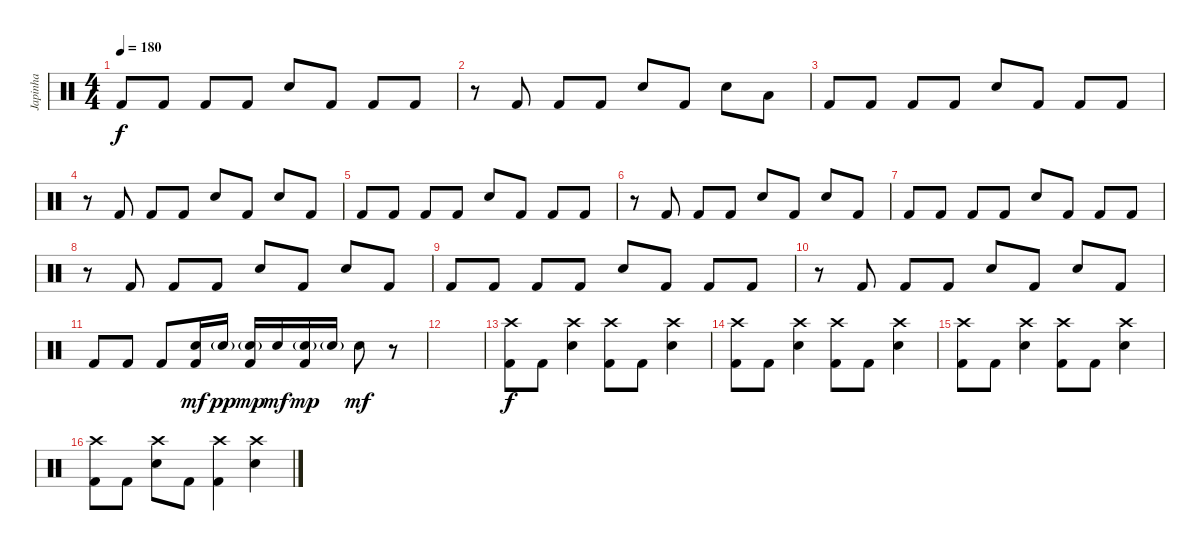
\track ("Japinha" "Japinha") {instrument percussion}
\staff {score}
\articulation defaults
\ts (4 4)
\tempo 180
\clef neutral
\ks c "Kick (hit) 2".8{dy f} "Kick (hit) 2".8 "Kick (hit) 2".8 "Kick (hit) 2".8 "Snare (hit) 2".8 "Kick (hit) 2".8 "Kick (hit) 2".8 "Kick (hit) 2".8
|
r.8 "Kick (hit) 2".8 "Kick (hit) 2".8 "Kick (hit) 2".8 "Snare (hit) 2".8 "Kick (hit) 2".8 "Snare (hit) 2".8 "Low Floor Tom (hit)".8 |
"Kick (hit) 2".8 "Kick (hit) 2".8 "Kick (hit) 2".8 "Kick (hit) 2".8 "Snare (hit) 2".8 "Kick (hit) 2".8 "Kick (hit) 2".8 "Kick (hit) 2".8 |
r.8 "Kick (hit) 2".8 "Kick (hit) 2".8 "Kick (hit) 2".8 "Snare (hit) 2".8 "Kick (hit) 2".8 "Snare (hit) 2".8 "Kick (hit) 2".8 |
"Kick (hit) 2".8 "Kick (hit) 2".8 "Kick (hit) 2".8 "Kick (hit) 2".8 "Snare (hit) 2".8 "Kick (hit) 2".8 "Kick (hit) 2".8 "Kick (hit) 2".8 |
r.8 "Kick (hit) 2".8 "Kick (hit) 2".8 "Kick (hit) 2".8 "Snare (hit) 2".8 "Kick (hit) 2".8 "Snare (hit) 2".8 "Kick (hit) 2".8 |
"Kick (hit) 2".8 "Kick (hit) 2".8 "Kick (hit) 2".8 "Kick (hit) 2".8 "Snare (hit) 2".8 "Kick (hit) 2".8 "Kick (hit) 2".8 "Kick (hit) 2".8 |
r.8 "Kick (hit) 2".8 "Kick (hit) 2".8 "Kick (hit) 2".8 "Snare (hit) 2".8 "Kick (hit) 2".8 "Snare (hit) 2".8 "Kick (hit) 2".8 |
"Kick (hit) 2".8 "Kick (hit) 2".8 "Kick (hit) 2".8 "Kick (hit) 2".8 "Snare (hit) 2".8 "Kick (hit) 2".8 "Kick (hit) 2".8 "Kick (hit) 2".8 |
r.8 "Kick (hit) 2".8 "Kick (hit) 2".8 "Kick (hit) 2".8 "Snare (hit) 2".8 "Kick (hit) 2".8 "Snare (hit) 2".8 "Kick (hit) 2".8 |
"Kick (hit) 2".8 "Kick (hit) 2".8 "Kick (hit) 2".8 ("Kick (hit) 2" "Snare (hit) 2").16{dy mf} "Snare (hit) 2"{g}.16{dy pp} ("Kick (hit) 2" "Snare (hit) 2"{g}).16{dy mp} "Snare (hit) 2".16{dy mf} ("Kick (hit) 2" "Snare (hit) 2"{g}).16{dy mp} "Snare (hit) 2"{g}.16 "Snare (hit) 2".8{dy mf} r.8 |
|
("Kick (hit) 2" "Crash high (hit)").8{dy f} "Kick (hit) 2".8 ("Snare (hit) 2" "Crash high (hit)").4 ("Kick (hit) 2" "Crash high (hit)").8 "Kick (hit) 2".8 ("Snare (hit) 2" "Crash high (hit)").4 |
("Kick (hit) 2" "Crash high (hit)").8 "Kick (hit) 2".8 ("Snare (hit) 2" "Crash high (hit)").4 ("Kick (hit) 2" "Crash high (hit)").8 "Kick (hit) 2".8 ("Snare (hit) 2" "Crash high (hit)").4 |
("Kick (hit) 2" "Crash high (hit)").8 "Kick (hit) 2".8 ("Snare (hit) 2" "Crash high (hit)").4 ("Kick (hit) 2" "Crash high (hit)").8 "Kick (hit) 2".8 ("Snare (hit) 2" "Crash high (hit)").4 |
("Kick (hit) 2" "Crash high (hit)").8 "Kick (hit) 2".8 ("Snare (hit) 2" "Crash high (hit)").8 "Kick (hit) 2".8 ("Kick (hit) 2" "Crash high (hit)").4 ("Snare (hit) 2" "Crash high (hit)").4
